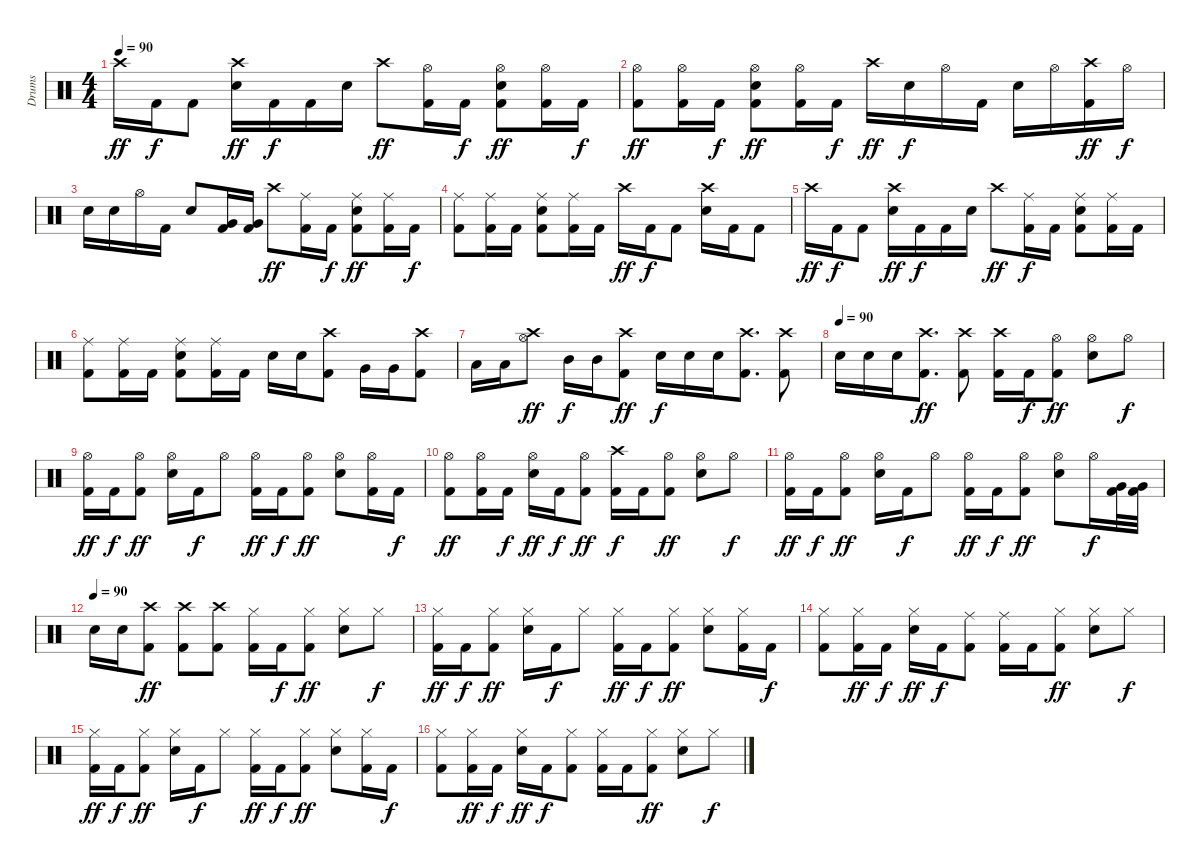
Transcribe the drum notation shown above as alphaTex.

\track ("Drums" "Drums") {instrument percussion}
\staff {score}
\articulation defaults
\ts (4 4)
\tempo 90
\clef neutral
\ks c "Crash high (hit)".16{dy ff} "Kick (hit) 2".16{dy f} "Kick (hit) 2".8
("Crash high (hit)" "Electric Snare (hit)").16{dy ff} "Kick (hit) 2".16{dy f} "Kick (hit) 2".16 "Electric Snare (hit)".16 "Crash high (hit)".8{dy ff} ("Hi-Hat (open)" "Kick (hit) 2").16 "Kick (hit) 2".16{dy f} ("Hi-Hat (open)" "Electric Snare (hit)" "Kick (hit) 2").8{dy ff} ("Hi-Hat (open)" "Kick (hit) 2").16 "Kick (hit) 2".16{dy f} |
("Hi-Hat (open)" "Kick (hit) 2").8{dy ff} ("Hi-Hat (open)" "Kick (hit) 2").16 "Kick (hit) 2".16{dy f} ("Hi-Hat (open)" "Electric Snare (hit)" "Kick (hit) 2").8{dy ff} ("Hi-Hat (open)" "Kick (hit) 2").16 "Kick (hit) 2".16{dy f} "Crash high (hit)".16{dy ff} "Electric Snare (hit)".16{dy f} "Hi-Hat (open)".16 "Kick (hit) 2".16 "Electric Snare (hit)".16 "Hi-Hat (open)".16 ("Crash high (hit)" "Kick (hit) 2").16{dy ff} "Hi-Hat (open)".16{dy f} |
"Electric Snare (hit)".16 "Electric Snare (hit)".16 "Hi-Hat (open)".16 "Kick (hit) 2".16 "Electric Snare (hit)".8 ("Very Low Tom (hit)" "Kick (hit) 2").16 ("Very Low Tom (hit)" "Kick (hit) 2").16 "Crash high (hit)".8{dy ff} ("Ride (middle)" "Kick (hit) 2").16 "Kick (hit) 2".16{dy f} ("Ride (middle)" "Electric Snare (hit)" "Kick (hit) 2").8{dy ff} ("Ride (middle)" "Kick (hit) 2").16 "Kick (hit) 2".16{dy f} |
("Ride (middle)" "Kick (hit) 2").8 ("Ride (middle)" "Kick (hit) 2").16 "Kick (hit) 2".16 ("Ride (middle)" "Electric Snare (hit)" "Kick (hit) 2").8 ("Ride (middle)" "Kick (hit) 2").16 "Kick (hit) 2".16 "Crash high (hit)".16{dy ff} "Kick (hit) 2".16{dy f} "Kick (hit) 2".8 ("Crash high (hit)" "Electric Snare (hit)").16 "Kick (hit) 2".16 "Kick (hit) 2".8 |
"Crash high (hit)".16{dy ff} "Kick (hit) 2".16{dy f} "Kick (hit) 2".8 ("Crash high (hit)" "Electric Snare (hit)").16{dy ff} "Kick (hit) 2".16{dy f} "Kick (hit) 2".16 "Electric Snare (hit)".16 "Crash high (hit)".8{dy ff} ("Ride (middle)" "Kick (hit) 2").16{dy f} "Kick (hit) 2".16 ("Ride (middle)" "Electric Snare (hit)" "Kick (hit) 2").8 ("Ride (middle)" "Kick (hit) 2").16 "Kick (hit) 2".16 |
("Ride (middle)" "Kick (hit) 2").8 ("Ride (middle)" "Kick (hit) 2").16 "Kick (hit) 2".16 ("Ride (middle)" "Electric Snare (hit)" "Kick (hit) 2").8 ("Ride (middle)" "Kick (hit) 2").16 "Kick (hit) 2".16 "Electric Snare (hit)".16 "Electric Snare (hit)".16 ("Crash high (hit)" "Kick (hit) 2").8 "Very Low Tom (hit)".16 "Very Low Tom (hit)".16 ("Crash high (hit)" "Kick (hit) 2").8 |
"Low Tom (hit)".16 "Low Tom (hit)".16 ("Crash high (hit)" "Hi-Hat (open)").8{dy ff} "Mid Tom (hit)".16{dy f} "Mid Tom (hit)".16 ("Crash high (hit)" "Kick (hit) 2").8{dy ff} "Electric Snare (hit)".16{dy f} "Electric Snare (hit)".16 "Electric Snare (hit)".16 ("Crash high (hit)" "Kick (hit) 2").8{d} ("Crash high (hit)" "Kick (hit) 2").8 |
\tempo (90)
"Electric Snare (hit)".16 "Electric Snare (hit)".16 "Electric Snare (hit)".16 ("Crash high (hit)" "Kick (hit) 2").8{d dy ff} ("Crash high (hit)" "Kick (hit) 2").8 ("Crash high (hit)" "Kick (hit) 2").16 "Kick (hit) 2".16{dy f} ("Hi-Hat (open)" "Kick (hit) 2").8{dy ff} ("Hi-Hat (open)" "Electric Snare (hit)").8 "Hi-Hat (open)".8{dy f} |
("Hi-Hat (open)" "Kick (hit) 2").16{dy ff} "Kick (hit) 2".16{dy f} ("Hi-Hat (open)" "Kick (hit) 2").8{dy ff} ("Hi-Hat (open)" "Electric Snare (hit)").16 "Kick (hit) 2".16{dy f} "Hi-Hat (open)".8 ("Hi-Hat (open)" "Kick (hit) 2").16{dy ff} "Kick (hit) 2".16{dy f} ("Hi-Hat (open)" "Kick (hit) 2").8{dy ff} ("Hi-Hat (open)" "Electric Snare (hit)").8 ("Hi-Hat (open)" "Kick (hit) 2").16 "Kick (hit) 2".16{dy f} |
("Hi-Hat (open)" "Kick (hit) 2").8{dy ff} ("Hi-Hat (open)" "Kick (hit) 2").16 "Kick (hit) 2".16{dy f} ("Hi-Hat (open)" "Electric Snare (hit)").16{dy ff} "Kick (hit) 2".16{dy f} ("Hi-Hat (open)" "Kick (hit) 2").8{dy ff} ("Crash high (hit)" "Kick (hit) 2").16{dy f} "Kick (hit) 2".16 ("Hi-Hat (open)" "Kick (hit) 2").8{dy ff} ("Hi-Hat (open)" "Electric Snare (hit)").8 "Hi-Hat (open)".8{dy f} |
("Hi-Hat (open)" "Kick (hit) 2").16{dy ff} "Kick (hit) 2".16{dy f} ("Hi-Hat (open)" "Kick (hit) 2").8{dy ff} ("Hi-Hat (open)" "Electric Snare (hit)").16 "Kick (hit) 2".16{dy f} "Hi-Hat (open)".8 ("Hi-Hat (open)" "Kick (hit) 2").16{dy ff} "Kick (hit) 2".16{dy f} ("Hi-Hat (open)" "Kick (hit) 2").8{dy ff} ("Hi-Hat (open)" "Electric Snare (hit)").8 "Hi-Hat (open)".16{dy f} ("Very Low Tom (hit)" "Kick (hit) 2").32 ("Very Low Tom (hit)" "Kick (hit) 2").32 |
\tempo (90)
"Electric Snare (hit)".16 "Electric Snare (hit)".16 ("Crash high (hit)" "Kick (hit) 2").8{dy ff} ("Crash high (hit)" "Kick (hit) 2").8 ("Crash high (hit)" "Kick (hit) 2").8 ("Hi-Hat (closed)" "Kick (hit) 2").16 "Kick (hit) 2".16{dy f} ("Hi-Hat (closed)" "Kick (hit) 2").8{dy ff} ("Hi-Hat (closed)" "Electric Snare (hit)").8 "Hi-Hat (closed)".8{dy f} |
("Hi-Hat (closed)" "Kick (hit) 2").16{dy ff} "Kick (hit) 2".16{dy f} ("Hi-Hat (closed)" "Kick (hit) 2").8{dy ff} ("Hi-Hat (closed)" "Electric Snare (hit)").16 "Kick (hit) 2".16{dy f} "Hi-Hat (closed)".8 ("Hi-Hat (closed)" "Kick (hit) 2").16{dy ff} "Kick (hit) 2".16{dy f} ("Hi-Hat (closed)" "Kick (hit) 2").8{dy ff} ("Hi-Hat (closed)" "Electric Snare (hit)").8 ("Hi-Hat (closed)" "Kick (hit) 2").16 "Kick (hit) 2".16{dy f} |
("Hi-Hat (closed)" "Kick (hit) 2").8 ("Hi-Hat (closed)" "Kick (hit) 2").16{dy ff} "Kick (hit) 2".16{dy f} ("Hi-Hat (closed)" "Electric Snare (hit)").16{dy ff} "Kick (hit) 2".16{dy f} ("Ride (middle)" "Kick (hit) 2").8 ("Ride (middle)" "Kick (hit) 2").16 "Kick (hit) 2".16 ("Hi-Hat (closed)" "Kick (hit) 2").8{dy ff} ("Hi-Hat (closed)" "Electric Snare (hit)").8 "Hi-Hat (closed)".8{dy f} |
("Hi-Hat (closed)" "Kick (hit) 2").16{dy ff} "Kick (hit) 2".16{dy f} ("Hi-Hat (closed)" "Kick (hit) 2").8{dy ff} ("Hi-Hat (closed)" "Electric Snare (hit)").16 "Kick (hit) 2".16{dy f} "Hi-Hat (closed)".8 ("Hi-Hat (closed)" "Kick (hit) 2").16{dy ff} "Kick (hit) 2".16{dy f} ("Hi-Hat (closed)" "Kick (hit) 2").8{dy ff} ("Hi-Hat (closed)" "Electric Snare (hit)").8 ("Hi-Hat (closed)" "Kick (hit) 2").16 "Kick (hit) 2".16{dy f} |
("Hi-Hat (closed)" "Kick (hit) 2").8 ("Hi-Hat (closed)" "Kick (hit) 2").16{dy ff} "Kick (hit) 2".16{dy f} ("Hi-Hat (closed)" "Electric Snare (hit)").16{dy ff} "Kick (hit) 2".16{dy f} ("Hi-Hat (closed)" "Kick (hit) 2").8 ("Hi-Hat (closed)" "Kick (hit) 2").16 "Kick (hit) 2".16 ("Hi-Hat (closed)" "Kick (hit) 2").8{dy ff} ("Hi-Hat (closed)" "Electric Snare (hit)").8 "Hi-Hat (closed)".8{dy f}
